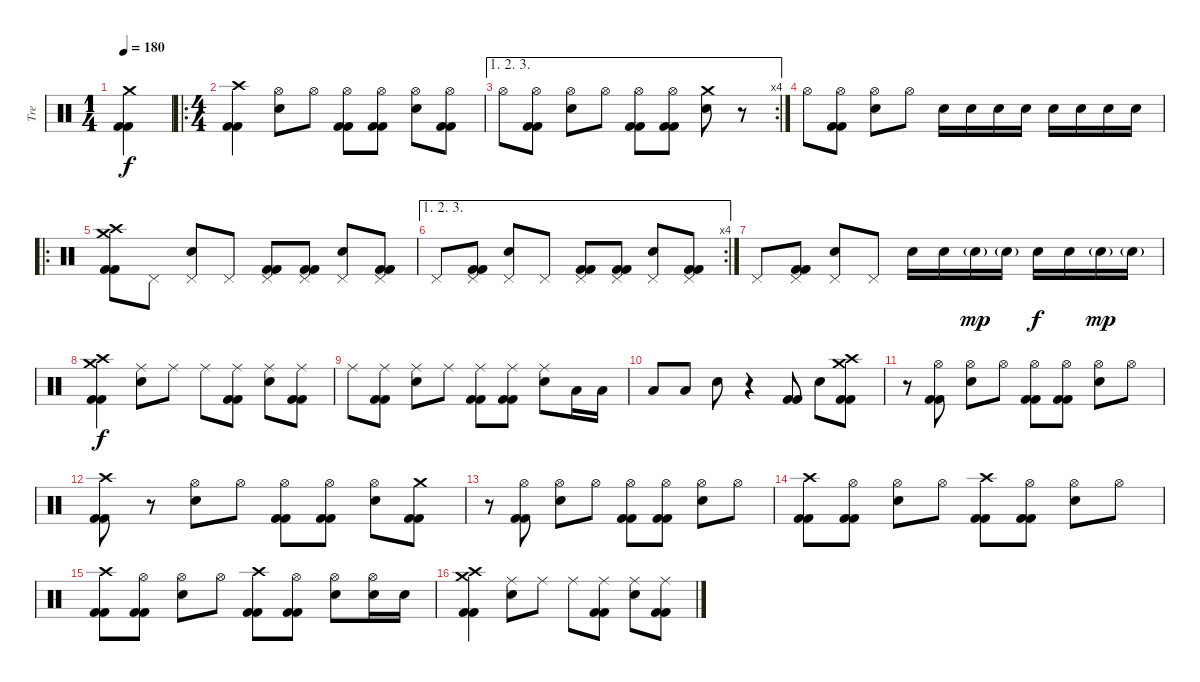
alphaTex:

\track ("Tre" "Tre") {instrument percussion}
\staff {score}
\articulation defaults
\ts (1 4)
\tempo 180
\clef neutral
\ks c
("Crash medium (hit)" "Kick (hit) 2" "Kick (hit) 2").4{dy f} |
\ro
\ts (4 4)
("Crash high (hit)" "Kick (hit) 2" "Kick (hit) 2").4 ("Hi-Hat (open)" "Snare (hit) 2").8 "Hi-Hat (open)".8 ("Hi-Hat (open)" "Kick (hit) 2" "Kick (hit) 2").8 ("Hi-Hat (open)" "Kick (hit) 2" "Kick (hit) 2").8 ("Hi-Hat (open)" "Snare (hit) 2").8 ("Hi-Hat (open)" "Kick (hit) 2" "Kick (hit) 2").8 |
\ae (1 2 3)
\rc 4 "Hi-Hat (open)".8
("Hi-Hat (open)" "Kick (hit) 2" "Kick (hit) 2").8 ("Hi-Hat (open)" "Snare (hit) 2").8 "Hi-Hat (open)".8 ("Hi-Hat (open)" "Kick (hit) 2" "Kick (hit) 2").8 ("Hi-Hat (open)" "Kick (hit) 2" "Kick (hit) 2").8 ("Crash medium (hit)" "Snare (hit) 2").8 r.8 |
"Hi-Hat (open)".8 ("Hi-Hat (open)" "Kick (hit) 2" "Kick (hit) 2").8 ("Hi-Hat (open)" "Snare (hit) 2").8 "Hi-Hat (open)".8 "Snare (hit) 2".16 "Snare (hit) 2".16 "Snare (hit) 2".16 "Snare (hit) 2".16 "Snare (hit) 2".16 "Snare (hit) 2".16 "Snare (hit) 2".16 "Snare (hit) 2".16 |
\ro
("Crash high (hit)" "Crash medium (hit)" "Kick (hit) 2" "Kick (hit) 2").8 "Pedal Hi-Hat (hit)".8 ("Pedal Hi-Hat (hit)" "Snare (hit) 2").8 "Pedal Hi-Hat (hit)".8 ("Pedal Hi-Hat (hit)" "Kick (hit) 2" "Kick (hit) 2").8 ("Pedal Hi-Hat (hit)" "Kick (hit) 2" "Kick (hit) 2").8 ("Pedal Hi-Hat (hit)" "Snare (hit) 2").8 ("Pedal Hi-Hat (hit)" "Kick (hit) 2" "Kick (hit) 2").8 |
\ae (1 2 3)
\rc 4 "Pedal Hi-Hat (hit)".8
("Pedal Hi-Hat (hit)" "Kick (hit) 2" "Kick (hit) 2").8 ("Pedal Hi-Hat (hit)" "Snare (hit) 2").8 "Pedal Hi-Hat (hit)".8 ("Pedal Hi-Hat (hit)" "Kick (hit) 2" "Kick (hit) 2").8 ("Pedal Hi-Hat (hit)" "Kick (hit) 2" "Kick (hit) 2").8 ("Pedal Hi-Hat (hit)" "Snare (hit) 2").8 ("Pedal Hi-Hat (hit)" "Kick (hit) 2" "Kick (hit) 2").8 |
"Pedal Hi-Hat (hit)".8 ("Pedal Hi-Hat (hit)" "Kick (hit) 2" "Kick (hit) 2").8 ("Pedal Hi-Hat (hit)" "Snare (hit) 2").8 "Pedal Hi-Hat (hit)".8 "Snare (hit) 2".16 "Snare (hit) 2".16 "Snare (hit) 2"{g}.16{dy mp} "Snare (hit) 2"{g}.16 "Snare (hit) 2".16{dy f} "Snare (hit) 2".16 "Snare (hit) 2"{g}.16{dy mp} "Snare (hit) 2"{g}.16 |
("Crash high (hit)" "Crash medium (hit)" "Kick (hit) 2" "Kick (hit) 2").4{dy f} ("Ride (middle)" "Snare (hit) 2").8 "Ride (middle)".8 "Ride (middle)".8 ("Ride (middle)" "Kick (hit) 2" "Kick (hit) 2").8 ("Ride (middle)" "Snare (hit) 2").8 ("Ride (middle)" "Kick (hit) 2" "Kick (hit) 2").8 |
"Ride (middle)".8 ("Ride (middle)" "Kick (hit) 2" "Kick (hit) 2").8 ("Ride (middle)" "Snare (hit) 2").8 "Ride (middle)".8 ("Ride (middle)" "Kick (hit) 2" "Kick (hit) 2").8 ("Ride (middle)" "Kick (hit) 2" "Kick (hit) 2").8 ("Ride (middle)" "Snare (hit) 2").8 "Low Tom (hit)".16 "Low Tom (hit)".16 |
"Low Tom (hit)".8 "Low Tom (hit)".8 "Snare (hit) 2".8 r.4 ("Kick (hit) 2" "Kick (hit) 2").8 "Snare (hit) 2".8 ("Crash high (hit)" "Crash medium (hit)" "Kick (hit) 2" "Kick (hit) 2").8 |
r.8 ("Hi-Hat (open)" "Kick (hit) 2" "Kick (hit) 2").8 ("Hi-Hat (open)" "Snare (hit) 2").8 "Hi-Hat (open)".8 ("Hi-Hat (open)" "Kick (hit) 2" "Kick (hit) 2").8 ("Hi-Hat (open)" "Kick (hit) 2" "Kick (hit) 2").8 ("Hi-Hat (open)" "Snare (hit) 2").8 "Hi-Hat (open)".8 |
("Crash high (hit)" "Kick (hit) 2" "Kick (hit) 2").8 r.8 ("Hi-Hat (open)" "Snare (hit) 2").8 "Hi-Hat (open)".8 ("Hi-Hat (open)" "Kick (hit) 2" "Kick (hit) 2").8 ("Hi-Hat (open)" "Kick (hit) 2" "Kick (hit) 2").8 ("Hi-Hat (open)" "Snare (hit) 2").8 ("Crash medium (hit)" "Kick (hit) 2" "Kick (hit) 2").8 |
r.8 ("Hi-Hat (open)" "Kick (hit) 2" "Kick (hit) 2").8 ("Hi-Hat (open)" "Snare (hit) 2").8 "Hi-Hat (open)".8 ("Hi-Hat (open)" "Kick (hit) 2" "Kick (hit) 2").8 ("Hi-Hat (open)" "Kick (hit) 2" "Kick (hit) 2").8 ("Hi-Hat (open)" "Snare (hit) 2").8 "Hi-Hat (open)".8 |
("Crash high (hit)" "Kick (hit) 2" "Kick (hit) 2").8 ("Hi-Hat (open)" "Kick (hit) 2" "Kick (hit) 2").8 ("Hi-Hat (open)" "Snare (hit) 2").8 "Hi-Hat (open)".8 ("Crash high (hit)" "Kick (hit) 2" "Kick (hit) 2").8 ("Hi-Hat (open)" "Kick (hit) 2" "Kick (hit) 2").8 ("Hi-Hat (open)" "Snare (hit) 2").8 "Hi-Hat (open)".8 |
("Crash high (hit)" "Kick (hit) 2" "Kick (hit) 2").8 ("Hi-Hat (open)" "Kick (hit) 2" "Kick (hit) 2").8 ("Hi-Hat (open)" "Snare (hit) 2").8 "Hi-Hat (open)".8 ("Crash high (hit)" "Kick (hit) 2" "Kick (hit) 2").8 ("Hi-Hat (open)" "Kick (hit) 2" "Kick (hit) 2").8 ("Hi-Hat (open)" "Snare (hit) 2").8 ("Hi-Hat (open)" "Snare (hit) 2").16 "Snare (hit) 2".16 |
("Crash high (hit)" "Crash medium (hit)" "Kick (hit) 2" "Kick (hit) 2").4 ("Ride (middle)" "Snare (hit) 2").8 "Ride (middle)".8 "Ride (middle)".8 ("Ride (middle)" "Kick (hit) 2" "Kick (hit) 2").8 ("Ride (middle)" "Snare (hit) 2").8 ("Ride (middle)" "Kick (hit) 2" "Kick (hit) 2").8
